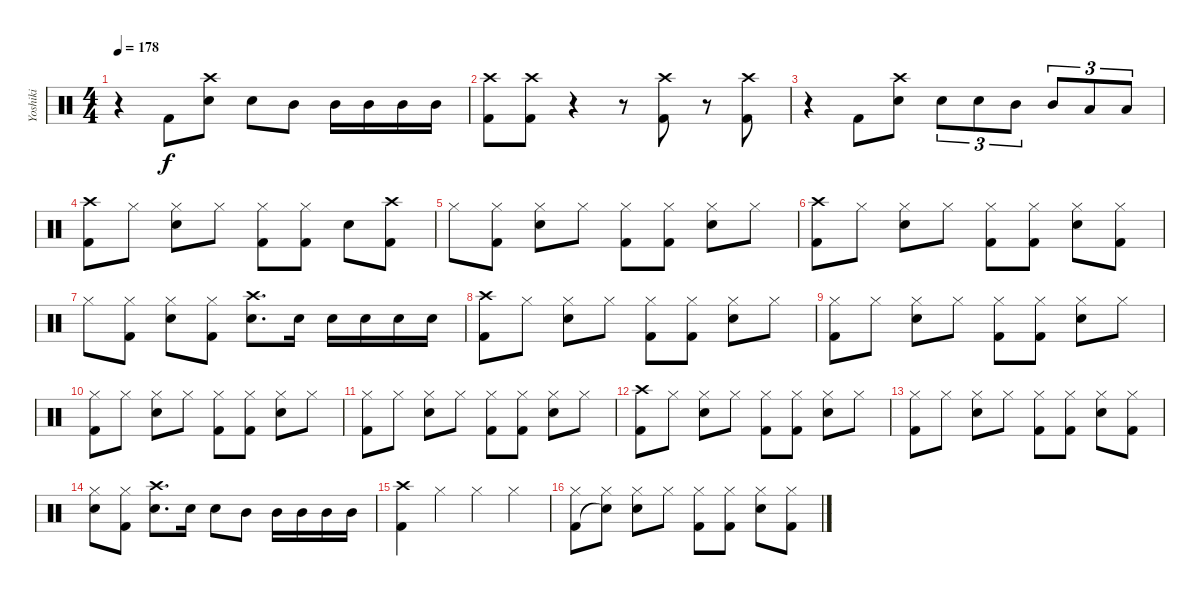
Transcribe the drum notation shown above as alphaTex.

\track ("Yoshiki" "Yoshiki") {instrument percussion}
\staff {score}
\articulation defaults
\ts (4 4)
\tempo 178
\clef neutral
\ks c
r.4{dy f} "Kick (hit) 2".8 ("Crash high (hit)" "Snare (hit) 2").8 "Snare (hit) 2".8 "Mid Tom (hit)".8 "Mid Tom (hit)".16 "Mid Tom (hit)".16 "Mid Tom (hit)".16 "Mid Tom (hit)".16 |
("Crash high (hit)" "Kick (hit) 2").8 ("Crash high (hit)" "Kick (hit) 2").8 r.4 r.8 ("Crash high (hit)" "Kick (hit) 2").8 r.8 ("Crash high (hit)" "Kick (hit) 2").8 |
r.4 "Kick (hit) 2".8 ("Crash high (hit)" "Snare (hit) 2").8 "Snare (hit) 2".8{tu (3 2)} "Snare (hit) 2".8{tu (3 2)} "Mid Tom (hit)".8{tu (3 2)} "Mid Tom (hit)".8{tu (3 2)} "Low Tom (hit)".8{tu (3 2)} "Low Tom (hit)".8{tu (3 2)} |
("Crash high (hit)" "Kick (hit) 2").8 "Hi-Hat (closed)".8 ("Hi-Hat (closed)" "Snare (hit) 2").8 "Hi-Hat (closed)".8 ("Hi-Hat (closed)" "Kick (hit) 2").8 ("Hi-Hat (closed)" "Kick (hit) 2").8 "Snare (hit) 2".8 ("Crash high (hit)" "Kick (hit) 2").8 |
"Hi-Hat (closed)".8 ("Hi-Hat (closed)" "Kick (hit) 2").8 ("Hi-Hat (closed)" "Snare (hit) 2").8 "Hi-Hat (closed)".8 ("Hi-Hat (closed)" "Kick (hit) 2").8 ("Hi-Hat (closed)" "Kick (hit) 2").8 ("Hi-Hat (closed)" "Snare (hit) 2").8 "Hi-Hat (closed)".8 |
("Crash high (hit)" "Kick (hit) 2").8 "Hi-Hat (closed)".8 ("Hi-Hat (closed)" "Snare (hit) 2").8 "Hi-Hat (closed)".8 ("Hi-Hat (closed)" "Kick (hit) 2").8 ("Hi-Hat (closed)" "Kick (hit) 2").8 ("Hi-Hat (closed)" "Snare (hit) 2").8 ("Hi-Hat (closed)" "Kick (hit) 2").8 |
"Hi-Hat (closed)".8 ("Hi-Hat (closed)" "Kick (hit) 2").8 ("Hi-Hat (closed)" "Snare (hit) 2").8 ("Hi-Hat (closed)" "Kick (hit) 2").8 ("Crash high (hit)" "Snare (hit) 2").8{d} "Snare (hit) 2".16 "Snare (hit) 2".16 "Snare (hit) 2".16 "Snare (hit) 2".16 "Snare (hit) 2".16 |
("Crash high (hit)" "Kick (hit) 2").8 "Hi-Hat (closed)".8 ("Hi-Hat (closed)" "Snare (hit) 2").8 "Hi-Hat (closed)".8 ("Hi-Hat (closed)" "Kick (hit) 2").8 ("Hi-Hat (closed)" "Kick (hit) 2").8 ("Hi-Hat (closed)" "Snare (hit) 2").8 "Hi-Hat (closed)".8 |
("Hi-Hat (closed)" "Kick (hit) 2").8 "Hi-Hat (closed)".8 ("Hi-Hat (closed)" "Snare (hit) 2").8 "Hi-Hat (closed)".8 ("Hi-Hat (closed)" "Kick (hit) 2").8 ("Hi-Hat (closed)" "Kick (hit) 2").8 ("Hi-Hat (closed)" "Snare (hit) 2").8 "Hi-Hat (closed)".8 |
("Hi-Hat (closed)" "Kick (hit) 2").8 "Hi-Hat (closed)".8 ("Hi-Hat (closed)" "Snare (hit) 2").8 "Hi-Hat (closed)".8 ("Hi-Hat (closed)" "Kick (hit) 2").8 ("Hi-Hat (closed)" "Kick (hit) 2").8 ("Hi-Hat (closed)" "Snare (hit) 2").8 "Hi-Hat (closed)".8 |
("Hi-Hat (closed)" "Kick (hit) 2").8 "Hi-Hat (closed)".8 ("Hi-Hat (closed)" "Snare (hit) 2").8 "Hi-Hat (closed)".8 ("Hi-Hat (closed)" "Kick (hit) 2").8 ("Hi-Hat (closed)" "Kick (hit) 2").8 ("Hi-Hat (closed)" "Snare (hit) 2").8 "Hi-Hat (closed)".8 |
("Crash high (hit)" "Kick (hit) 2").8 "Hi-Hat (closed)".8 ("Hi-Hat (closed)" "Snare (hit) 2").8 "Hi-Hat (closed)".8 ("Hi-Hat (closed)" "Kick (hit) 2").8 ("Hi-Hat (closed)" "Kick (hit) 2").8 ("Hi-Hat (closed)" "Snare (hit) 2").8 "Hi-Hat (closed)".8 |
("Hi-Hat (closed)" "Kick (hit) 2").8 "Hi-Hat (closed)".8 ("Hi-Hat (closed)" "Snare (hit) 2").8 "Hi-Hat (closed)".8 ("Hi-Hat (closed)" "Kick (hit) 2").8 ("Hi-Hat (closed)" "Kick (hit) 2").8 ("Hi-Hat (closed)" "Snare (hit) 2").8 ("Hi-Hat (closed)" "Kick (hit) 2").8 |
("Hi-Hat (closed)" "Snare (hit) 2").8 ("Hi-Hat (closed)" "Kick (hit) 2").8 ("Crash high (hit)" "Snare (hit) 2").8{d} "Snare (hit) 2".16 "Snare (hit) 2".8 "Mid Tom (hit)".8 "Mid Tom (hit)".16 "Mid Tom (hit)".16 "Mid Tom (hit)".16 "Mid Tom (hit)".16 |
("Crash high (hit)" "Kick (hit) 2").4 "Hi-Hat (closed)".4 "Hi-Hat (closed)".4 "Hi-Hat (closed)".4 |
\section ("" "")
("Hi-Hat (closed)" "Kick (hit) 2").8 ("Hi-Hat (closed)" "Snare (hit)"{t}).8 ("Hi-Hat (closed)" "Snare (hit) 2").8 "Hi-Hat (closed)".8 ("Hi-Hat (closed)" "Kick (hit) 2").8 ("Hi-Hat (closed)" "Kick (hit) 2").8 ("Hi-Hat (closed)" "Snare (hit) 2").8 ("Hi-Hat (closed)" "Kick (hit) 2").8
